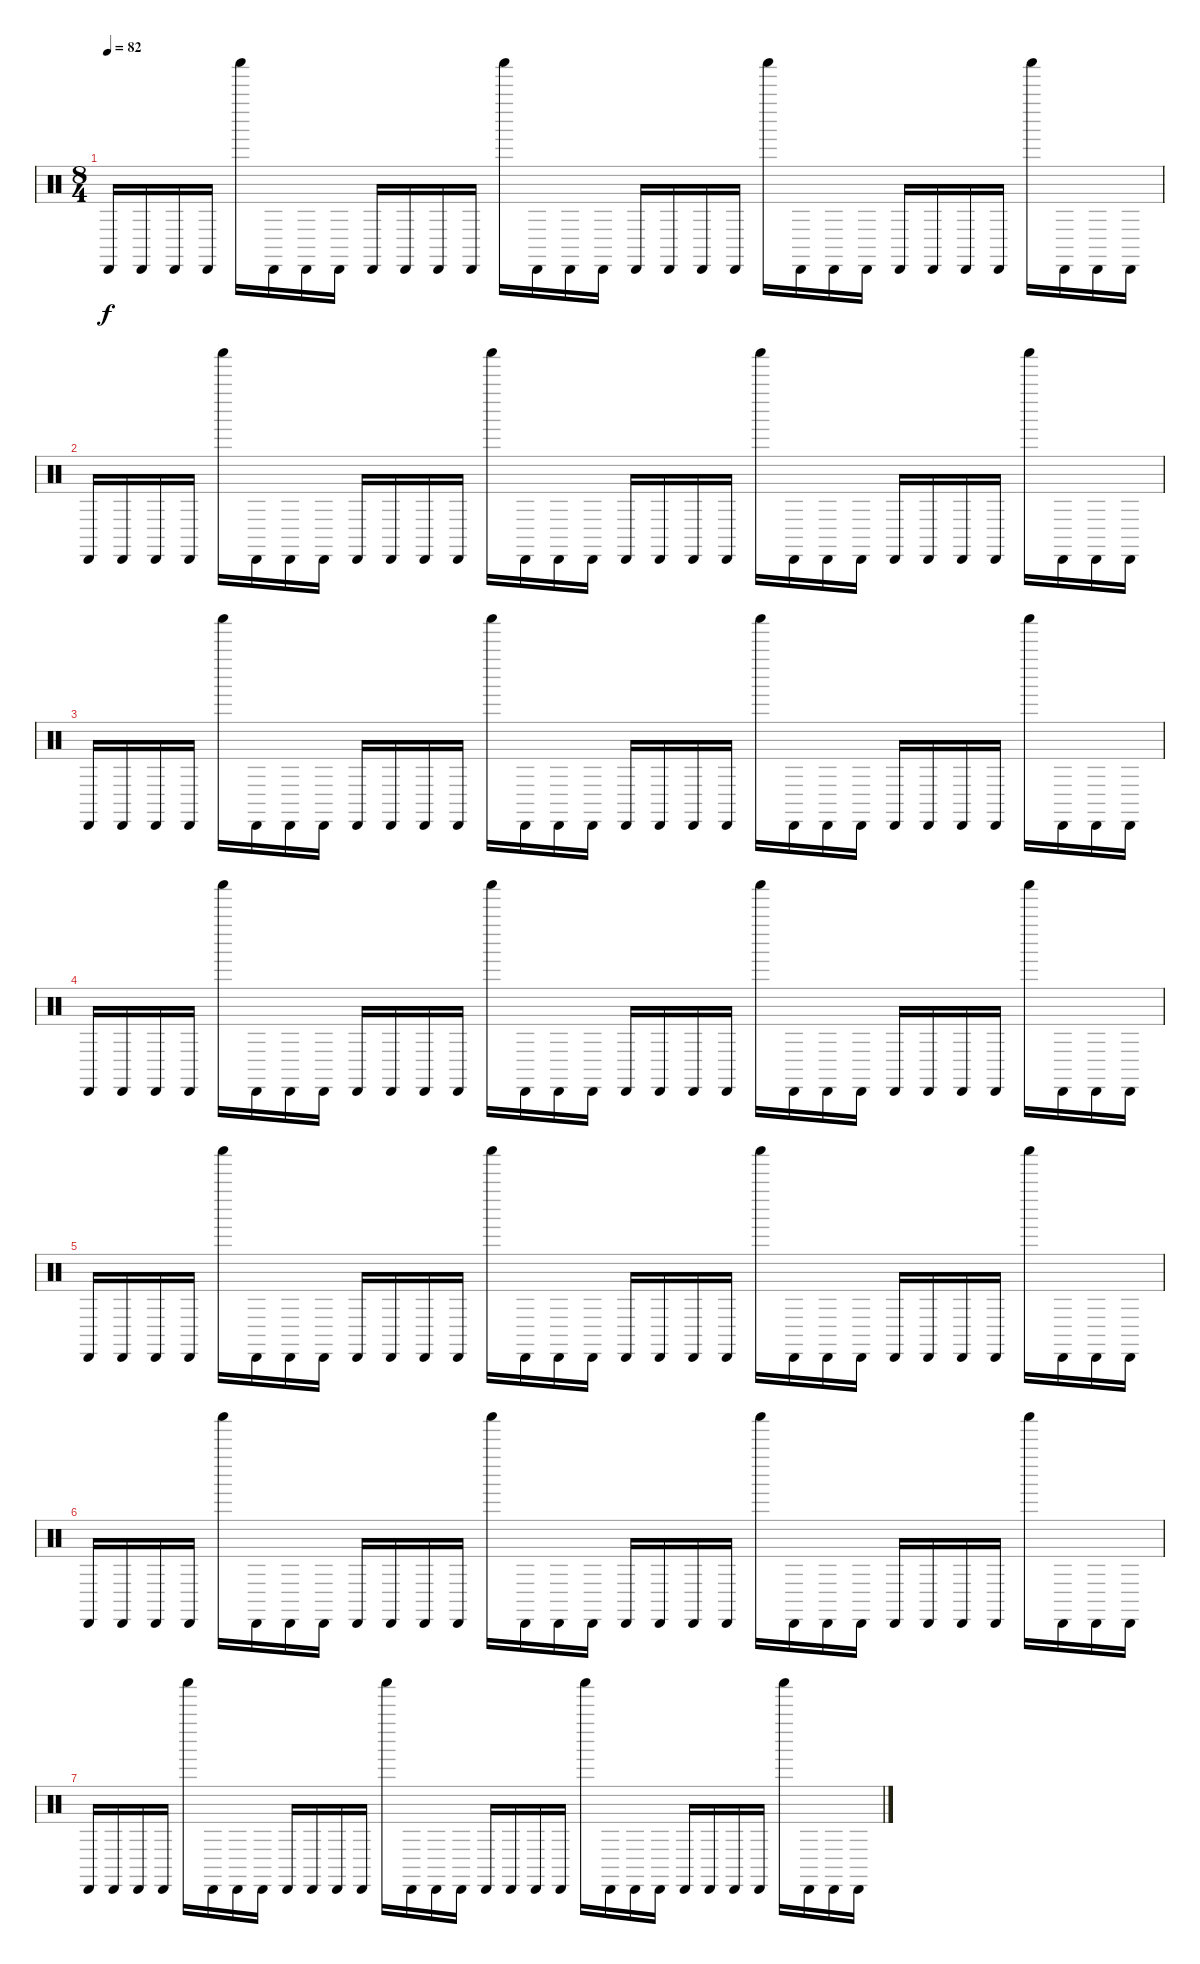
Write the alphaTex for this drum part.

\track "" {instrument percussion}
\staff {score}
\articulation defaults
\ts (8 4)
\tempo 82
\clef neutral
\ks c "Cabasa (hit)".16{dy f} "Cabasa (hit)".16 "Cabasa (hit)".16 "Cabasa (hit)".16 "Shaker (hit)".16 "Cabasa (hit)".16 "Cabasa (hit)".16 "Cabasa (hit)".16 "Cabasa (hit)".16 "Cabasa (hit)".16 "Cabasa (hit)".16 "Cabasa (hit)".16 "Shaker (hit)".16 "Cabasa (hit)".16 "Cabasa (hit)".16 "Cabasa (hit)".16 "Cabasa (hit)".16 "Cabasa (hit)".16 "Cabasa (hit)".16 "Cabasa (hit)".16 "Shaker (hit)".16 "Cabasa (hit)".16 "Cabasa (hit)".16 "Cabasa (hit)".16 "Cabasa (hit)".16 "Cabasa (hit)".16 "Cabasa (hit)".16 "Cabasa (hit)".16 "Shaker (hit)".16 "Cabasa (hit)".16 "Cabasa (hit)".16 "Cabasa (hit)".16
|
"Cabasa (hit)".16 "Cabasa (hit)".16 "Cabasa (hit)".16 "Cabasa (hit)".16 "Shaker (hit)".16 "Cabasa (hit)".16 "Cabasa (hit)".16 "Cabasa (hit)".16 "Cabasa (hit)".16 "Cabasa (hit)".16 "Cabasa (hit)".16 "Cabasa (hit)".16 "Shaker (hit)".16 "Cabasa (hit)".16 "Cabasa (hit)".16 "Cabasa (hit)".16 "Cabasa (hit)".16 "Cabasa (hit)".16 "Cabasa (hit)".16 "Cabasa (hit)".16 "Shaker (hit)".16 "Cabasa (hit)".16 "Cabasa (hit)".16 "Cabasa (hit)".16 "Cabasa (hit)".16 "Cabasa (hit)".16 "Cabasa (hit)".16 "Cabasa (hit)".16 "Shaker (hit)".16 "Cabasa (hit)".16 "Cabasa (hit)".16 "Cabasa (hit)".16 |
"Cabasa (hit)".16 "Cabasa (hit)".16 "Cabasa (hit)".16 "Cabasa (hit)".16 "Shaker (hit)".16 "Cabasa (hit)".16 "Cabasa (hit)".16 "Cabasa (hit)".16 "Cabasa (hit)".16 "Cabasa (hit)".16 "Cabasa (hit)".16 "Cabasa (hit)".16 "Shaker (hit)".16 "Cabasa (hit)".16 "Cabasa (hit)".16 "Cabasa (hit)".16 "Cabasa (hit)".16 "Cabasa (hit)".16 "Cabasa (hit)".16 "Cabasa (hit)".16 "Shaker (hit)".16 "Cabasa (hit)".16 "Cabasa (hit)".16 "Cabasa (hit)".16 "Cabasa (hit)".16 "Cabasa (hit)".16 "Cabasa (hit)".16 "Cabasa (hit)".16 "Shaker (hit)".16 "Cabasa (hit)".16 "Cabasa (hit)".16 "Cabasa (hit)".16 |
"Cabasa (hit)".16 "Cabasa (hit)".16 "Cabasa (hit)".16 "Cabasa (hit)".16 "Shaker (hit)".16 "Cabasa (hit)".16 "Cabasa (hit)".16 "Cabasa (hit)".16 "Cabasa (hit)".16 "Cabasa (hit)".16 "Cabasa (hit)".16 "Cabasa (hit)".16 "Shaker (hit)".16 "Cabasa (hit)".16 "Cabasa (hit)".16 "Cabasa (hit)".16 "Cabasa (hit)".16 "Cabasa (hit)".16 "Cabasa (hit)".16 "Cabasa (hit)".16 "Shaker (hit)".16 "Cabasa (hit)".16 "Cabasa (hit)".16 "Cabasa (hit)".16 "Cabasa (hit)".16 "Cabasa (hit)".16 "Cabasa (hit)".16 "Cabasa (hit)".16 "Shaker (hit)".16 "Cabasa (hit)".16 "Cabasa (hit)".16 "Cabasa (hit)".16 |
"Cabasa (hit)".16 "Cabasa (hit)".16 "Cabasa (hit)".16 "Cabasa (hit)".16 "Shaker (hit)".16 "Cabasa (hit)".16 "Cabasa (hit)".16 "Cabasa (hit)".16 "Cabasa (hit)".16 "Cabasa (hit)".16 "Cabasa (hit)".16 "Cabasa (hit)".16 "Shaker (hit)".16 "Cabasa (hit)".16 "Cabasa (hit)".16 "Cabasa (hit)".16 "Cabasa (hit)".16 "Cabasa (hit)".16 "Cabasa (hit)".16 "Cabasa (hit)".16 "Shaker (hit)".16 "Cabasa (hit)".16 "Cabasa (hit)".16 "Cabasa (hit)".16 "Cabasa (hit)".16 "Cabasa (hit)".16 "Cabasa (hit)".16 "Cabasa (hit)".16 "Shaker (hit)".16 "Cabasa (hit)".16 "Cabasa (hit)".16 "Cabasa (hit)".16 |
"Cabasa (hit)".16 "Cabasa (hit)".16 "Cabasa (hit)".16 "Cabasa (hit)".16 "Shaker (hit)".16 "Cabasa (hit)".16 "Cabasa (hit)".16 "Cabasa (hit)".16 "Cabasa (hit)".16 "Cabasa (hit)".16 "Cabasa (hit)".16 "Cabasa (hit)".16 "Shaker (hit)".16 "Cabasa (hit)".16 "Cabasa (hit)".16 "Cabasa (hit)".16 "Cabasa (hit)".16 "Cabasa (hit)".16 "Cabasa (hit)".16 "Cabasa (hit)".16 "Shaker (hit)".16 "Cabasa (hit)".16 "Cabasa (hit)".16 "Cabasa (hit)".16 "Cabasa (hit)".16 "Cabasa (hit)".16 "Cabasa (hit)".16 "Cabasa (hit)".16 "Shaker (hit)".16 "Cabasa (hit)".16 "Cabasa (hit)".16 "Cabasa (hit)".16 |
"Cabasa (hit)".16 "Cabasa (hit)".16 "Cabasa (hit)".16 "Cabasa (hit)".16 "Shaker (hit)".16 "Cabasa (hit)".16 "Cabasa (hit)".16 "Cabasa (hit)".16 "Cabasa (hit)".16 "Cabasa (hit)".16 "Cabasa (hit)".16 "Cabasa (hit)".16 "Shaker (hit)".16 "Cabasa (hit)".16 "Cabasa (hit)".16 "Cabasa (hit)".16 "Cabasa (hit)".16 "Cabasa (hit)".16 "Cabasa (hit)".16 "Cabasa (hit)".16 "Shaker (hit)".16 "Cabasa (hit)".16 "Cabasa (hit)".16 "Cabasa (hit)".16 "Cabasa (hit)".16 "Cabasa (hit)".16 "Cabasa (hit)".16 "Cabasa (hit)".16 "Shaker (hit)".16 "Cabasa (hit)".16 "Cabasa (hit)".16 "Cabasa (hit)".16
